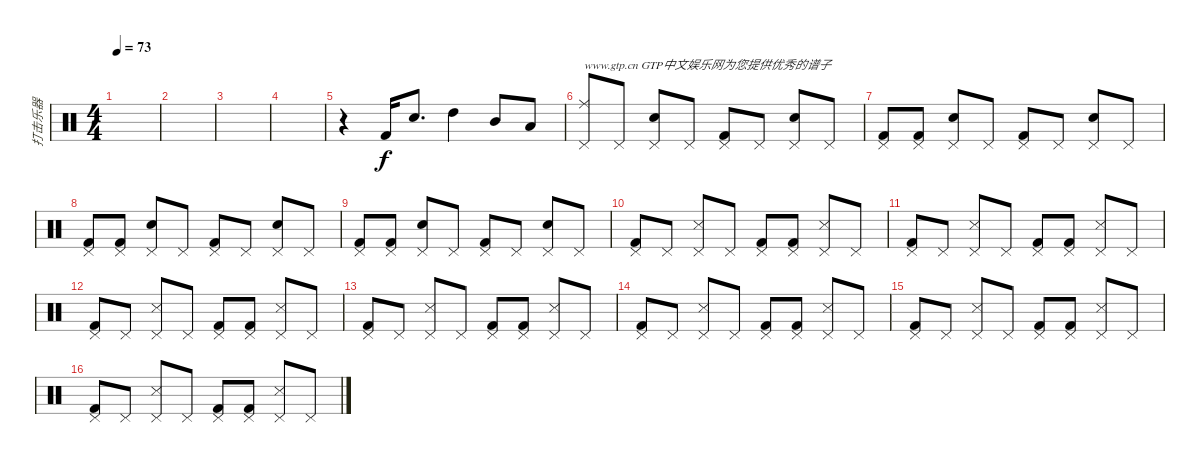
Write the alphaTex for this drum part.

\track ("打击乐器" "打击乐器") {instrument percussion}
\staff {score}
\articulation defaults
\ts (4 4)
\tempo 73
\clef neutral
\ks c
|
|
|
|
r.4 "Kick (hit) 2".16 "Electric Snare (hit)".8{d} "High Tom (hit)".4 "Mid Tom (hit)".8 "Low Tom (hit)".8 |
("Ride (middle)" "Pedal Hi-Hat (hit)").8{txt "www.gtp.cn GTP中文娱乐网为您提供优秀的谱子"} "Pedal Hi-Hat (hit)".8 ("Electric Snare (hit)" "Pedal Hi-Hat (hit)").8 "Pedal Hi-Hat (hit)".8 ("Kick (hit) 2" "Pedal Hi-Hat (hit)").8 "Pedal Hi-Hat (hit)".8 ("Electric Snare (hit)" "Pedal Hi-Hat (hit)").8 "Pedal Hi-Hat (hit)".8 |
("Kick (hit) 2" "Pedal Hi-Hat (hit)").8 ("Kick (hit) 2" "Pedal Hi-Hat (hit)").8 ("Electric Snare (hit)" "Pedal Hi-Hat (hit)").8 "Pedal Hi-Hat (hit)".8 ("Kick (hit) 2" "Pedal Hi-Hat (hit)").8 "Pedal Hi-Hat (hit)".8 ("Electric Snare (hit)" "Pedal Hi-Hat (hit)").8 "Pedal Hi-Hat (hit)".8 |
("Kick (hit) 2" "Pedal Hi-Hat (hit)").8 ("Kick (hit) 2" "Pedal Hi-Hat (hit)").8 ("Electric Snare (hit)" "Pedal Hi-Hat (hit)").8 "Pedal Hi-Hat (hit)".8 ("Kick (hit) 2" "Pedal Hi-Hat (hit)").8 "Pedal Hi-Hat (hit)".8 ("Electric Snare (hit)" "Pedal Hi-Hat (hit)").8 "Pedal Hi-Hat (hit)".8 |
("Kick (hit) 2" "Pedal Hi-Hat (hit)").8 ("Kick (hit) 2" "Pedal Hi-Hat (hit)").8 ("Electric Snare (hit)" "Pedal Hi-Hat (hit)").8 "Pedal Hi-Hat (hit)".8 ("Kick (hit) 2" "Pedal Hi-Hat (hit)").8 "Pedal Hi-Hat (hit)".8 ("Electric Snare (hit)" "Pedal Hi-Hat (hit)").8 "Pedal Hi-Hat (hit)".8 |
("Kick (hit) 2" "Pedal Hi-Hat (hit)").8 "Pedal Hi-Hat (hit)".8 ("Snare (side stick) 3" "Pedal Hi-Hat (hit)").8 "Pedal Hi-Hat (hit)".8 ("Kick (hit) 2" "Pedal Hi-Hat (hit)").8 ("Kick (hit) 2" "Pedal Hi-Hat (hit)").8 ("Snare (side stick) 3" "Pedal Hi-Hat (hit)").8 "Pedal Hi-Hat (hit)".8 |
("Kick (hit) 2" "Pedal Hi-Hat (hit)").8 "Pedal Hi-Hat (hit)".8 ("Snare (side stick) 3" "Pedal Hi-Hat (hit)").8 "Pedal Hi-Hat (hit)".8 ("Kick (hit) 2" "Pedal Hi-Hat (hit)").8 ("Kick (hit) 2" "Pedal Hi-Hat (hit)").8 ("Snare (side stick) 3" "Pedal Hi-Hat (hit)").8 "Pedal Hi-Hat (hit)".8 |
("Kick (hit) 2" "Pedal Hi-Hat (hit)").8 "Pedal Hi-Hat (hit)".8 ("Snare (side stick) 3" "Pedal Hi-Hat (hit)").8 "Pedal Hi-Hat (hit)".8 ("Kick (hit) 2" "Pedal Hi-Hat (hit)").8 ("Kick (hit) 2" "Pedal Hi-Hat (hit)").8 ("Snare (side stick) 3" "Pedal Hi-Hat (hit)").8 "Pedal Hi-Hat (hit)".8 |
("Kick (hit) 2" "Pedal Hi-Hat (hit)").8 "Pedal Hi-Hat (hit)".8 ("Snare (side stick) 3" "Pedal Hi-Hat (hit)").8 "Pedal Hi-Hat (hit)".8 ("Kick (hit) 2" "Pedal Hi-Hat (hit)").8 ("Kick (hit) 2" "Pedal Hi-Hat (hit)").8 ("Snare (side stick) 3" "Pedal Hi-Hat (hit)").8 "Pedal Hi-Hat (hit)".8 |
("Kick (hit) 2" "Pedal Hi-Hat (hit)").8 "Pedal Hi-Hat (hit)".8 ("Snare (side stick) 3" "Pedal Hi-Hat (hit)").8 "Pedal Hi-Hat (hit)".8 ("Kick (hit) 2" "Pedal Hi-Hat (hit)").8 ("Kick (hit) 2" "Pedal Hi-Hat (hit)").8 ("Snare (side stick) 3" "Pedal Hi-Hat (hit)").8 "Pedal Hi-Hat (hit)".8 |
("Kick (hit) 2" "Pedal Hi-Hat (hit)").8 "Pedal Hi-Hat (hit)".8 ("Snare (side stick) 3" "Pedal Hi-Hat (hit)").8 "Pedal Hi-Hat (hit)".8 ("Kick (hit) 2" "Pedal Hi-Hat (hit)").8 ("Kick (hit) 2" "Pedal Hi-Hat (hit)").8 ("Snare (side stick) 3" "Pedal Hi-Hat (hit)").8 "Pedal Hi-Hat (hit)".8 |
("Kick (hit) 2" "Pedal Hi-Hat (hit)").8 "Pedal Hi-Hat (hit)".8 ("Snare (side stick) 3" "Pedal Hi-Hat (hit)").8 "Pedal Hi-Hat (hit)".8 ("Kick (hit) 2" "Pedal Hi-Hat (hit)").8 ("Kick (hit) 2" "Pedal Hi-Hat (hit)").8 ("Snare (side stick) 3" "Pedal Hi-Hat (hit)").8 "Pedal Hi-Hat (hit)".8
